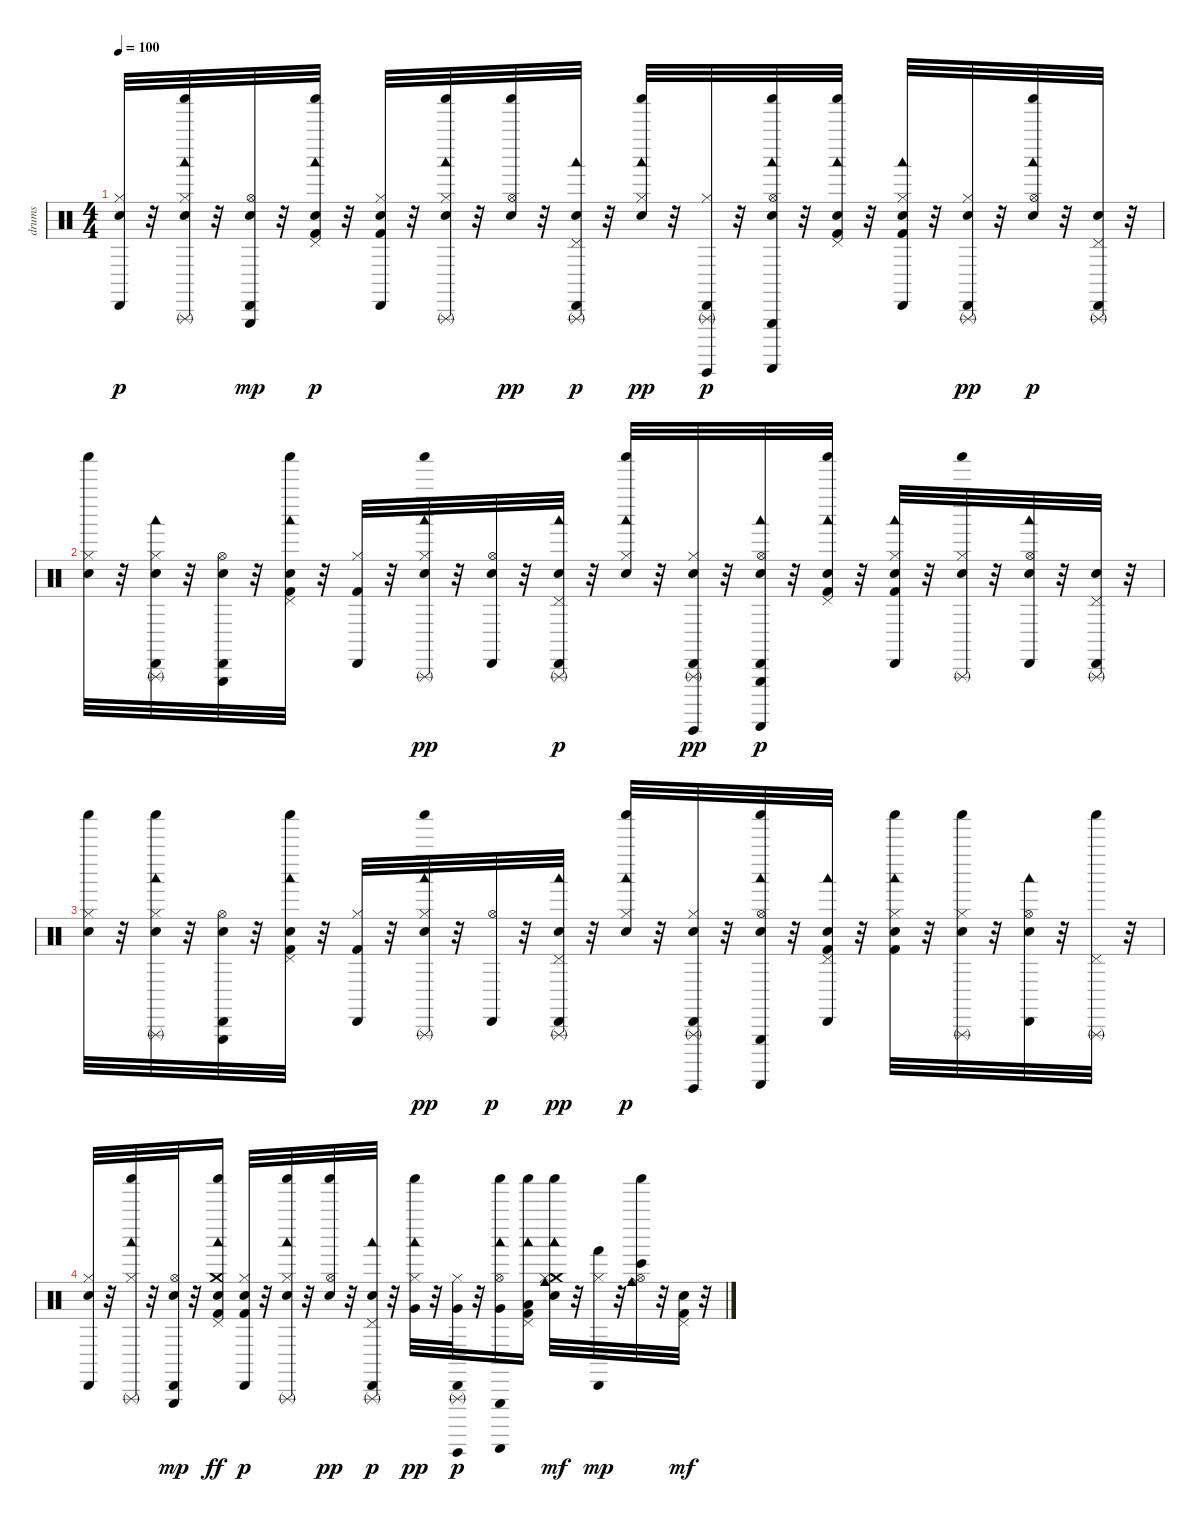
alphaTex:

\track ("drums" "drums") {instrument percussion}
\staff {score}
\articulation defaults
\ts (4 4)
\tempo 100
\clef neutral
\ks c
("Snare (hit) 2" "Hi-Hat (closed)" "Cabasa (hit)").32{dy p} r.32 ("Snare (hit) 2" "Hi-Hat (closed)" "Woodblock low (hit)" "Shaker (hit)" "Triangle (rnute)").32 r.32 ("Snare (hit) 2" "Hi-Hat (open)" "Cabasa (hit)" "Triangle (hit)").32{dy mp} r.32 ("Kick (hit) 2" "Snare (hit) 2" "Pedal Hi-Hat (hit)" "Woodblock low (hit)" "Shaker (hit)").32{dy p} r.32 ("Kick (hit) 2" "Snare (hit) 2" "Hi-Hat (closed)" "Cabasa (hit)").32 r.32 ("Snare (hit) 2" "Hi-Hat (closed)" "Woodblock low (hit)" "Shaker (hit)" "Triangle (rnute)").32 r.32 ("Snare (hit) 2" "Hi-Hat (open)" "Shaker (hit)").32{dy pp} r.32 ("Snare (hit) 2" "Pedal Hi-Hat (hit)" "Woodblock low (hit)" "Cabasa (hit)" "Triangle (rnute)").32{dy p} r.32 ("Snare (hit) 2" "Hi-Hat (closed)" "Woodblock low (hit)" "Shaker (hit)").32{dy pp} r.32 ("Hi-Hat (closed)" "Cabasa (hit)" "Triangle (rnute)" "Guiro (hit)").32{dy p} r.32 ("Snare (hit) 2" "Hi-Hat (open)" "Woodblock low (hit)" "Shaker (hit)" "Guiro (scrap-return)" "Triangle (hit)").32 r.32 ("Kick (hit) 2" "Snare (hit) 2" "Pedal Hi-Hat (hit)" "Woodblock low (hit)" "Shaker (hit)").32 r.32 ("Kick (hit) 2" "Snare (hit) 2" "Hi-Hat (closed)" "Woodblock low (hit)" "Cabasa (hit)").32 r.32 ("Snare (hit) 2" "Hi-Hat (closed)" "Cabasa (hit)" "Triangle (rnute)").32{dy pp} r.32 ("Snare (hit) 2" "Hi-Hat (open)" "Woodblock low (hit)" "Shaker (hit)").32{dy p} r.32 ("Snare (hit) 2" "Pedal Hi-Hat (hit)" "Cabasa (hit)" "Triangle (rnute)").32 r.32 |
("Snare (hit) 2" "Hi-Hat (closed)" "Shaker (hit)").32 r.32 ("Snare (hit) 2" "Hi-Hat (closed)" "Woodblock low (hit)" "Cabasa (hit)" "Triangle (rnute)").32 r.32 ("Snare (hit) 2" "Hi-Hat (open)" "Cabasa (hit)" "Triangle (hit)").32 r.32 ("Kick (hit) 2" "Snare (hit) 2" "Pedal Hi-Hat (hit)" "Woodblock low (hit)" "Shaker (hit)").32 r.32 ("Kick (hit) 2" "Hi-Hat (closed)" "Cabasa (hit)").32 r.32 ("Snare (hit) 2" "Hi-Hat (closed)" "Woodblock low (hit)" "Shaker (hit)" "Triangle (rnute)").32{dy pp} r.32 ("Snare (hit) 2" "Hi-Hat (open)" "Cabasa (hit)").32 r.32 ("Snare (hit) 2" "Pedal Hi-Hat (hit)" "Woodblock low (hit)" "Cabasa (hit)" "Triangle (rnute)").32{dy p} r.32 ("Snare (hit) 2" "Hi-Hat (closed)" "Woodblock low (hit)" "Shaker (hit)").32 r.32 ("Snare (hit) 2" "Hi-Hat (closed)" "Cabasa (hit)" "Guiro (hit)" "Triangle (rnute)").32{dy pp} r.32 ("Snare (hit) 2" "Hi-Hat (open)" "Woodblock low (hit)" "Cabasa (hit)" "Guiro (scrap-return)" "Triangle (hit)").32{dy p} r.32 ("Kick (hit) 2" "Snare (hit) 2" "Pedal Hi-Hat (hit)" "Woodblock low (hit)" "Shaker (hit)").32 r.32 ("Kick (hit) 2" "Snare (hit) 2" "Hi-Hat (closed)" "Woodblock low (hit)" "Cabasa (hit)").32 r.32 ("Snare (hit) 2" "Hi-Hat (closed)" "Shaker (hit)" "Triangle (rnute)").32 r.32 ("Snare (hit) 2" "Hi-Hat (open)" "Woodblock low (hit)" "Cabasa (hit)").32 r.32 ("Snare (hit) 2" "Pedal Hi-Hat (hit)" "Cabasa (hit)" "Triangle (rnute)").32 r.32 |
("Snare (hit) 2" "Hi-Hat (closed)" "Shaker (hit)").32 r.32 ("Snare (hit) 2" "Hi-Hat (closed)" "Woodblock low (hit)" "Shaker (hit)" "Triangle (rnute)").32 r.32 ("Snare (hit) 2" "Hi-Hat (open)" "Cabasa (hit)" "Triangle (hit)").32 r.32 ("Kick (hit) 2" "Snare (hit) 2" "Pedal Hi-Hat (hit)" "Woodblock low (hit)" "Shaker (hit)").32 r.32 ("Kick (hit) 2" "Hi-Hat (closed)" "Cabasa (hit)").32 r.32 ("Snare (hit) 2" "Hi-Hat (closed)" "Woodblock low (hit)" "Shaker (hit)" "Triangle (rnute)").32{dy pp} r.32 ("Hi-Hat (open)" "Cabasa (hit)").32{dy p} r.32 ("Snare (hit) 2" "Pedal Hi-Hat (hit)" "Woodblock low (hit)" "Cabasa (hit)" "Triangle (rnute)").32{dy pp} r.32 ("Snare (hit) 2" "Hi-Hat (closed)" "Woodblock low (hit)" "Shaker (hit)").32{dy p} r.32 ("Snare (hit) 2" "Hi-Hat (closed)" "Cabasa (hit)" "Triangle (rnute)" "Guiro (hit)").32 r.32 ("Snare (hit) 2" "Hi-Hat (open)" "Woodblock low (hit)" "Shaker (hit)" "Guiro (scrap-return)" "Triangle (hit)").32 r.32 ("Kick (hit) 2" "Snare (hit) 2" "Pedal Hi-Hat (hit)" "Woodblock low (hit)" "Cabasa (hit)").32 r.32 ("Kick (hit) 2" "Snare (hit) 2" "Hi-Hat (closed)" "Woodblock low (hit)" "Shaker (hit)").32 r.32 ("Snare (hit) 2" "Hi-Hat (closed)" "Shaker (hit)" "Triangle (rnute)").32 r.32 ("Snare (hit) 2" "Hi-Hat (open)" "Woodblock low (hit)" "Cabasa (hit)").32 r.32 ("Pedal Hi-Hat (hit)" "Shaker (hit)" "Triangle (rnute)").32 r.32 |
("Snare (hit) 2" "Hi-Hat (closed)" "Cabasa (hit)").32 r.32 ("Hi-Hat (closed)" "Woodblock low (hit)" "Shaker (hit)" "Triangle (rnute)").32 r.32 ("Snare (hit) 2" "Hi-Hat (open)" "Cabasa (hit)" "Triangle (hit)").32{dy mp} r.32 ("Kick (hit) 2" "Snare (hit) 2" "Pedal Hi-Hat (hit)" "Woodblock low (hit)" "Shaker (hit)" "Crash medium (hit)").16{dy ff} ("Kick (hit) 2" "Snare (hit) 2" "Hi-Hat (closed)" "Cabasa (hit)").32{dy p} r.32 ("Snare (hit) 2" "Hi-Hat (closed)" "Woodblock low (hit)" "Shaker (hit)" "Triangle (rnute)").32 r.32 ("Snare (hit) 2" "Hi-Hat (open)" "Shaker (hit)").32{dy pp} r.32 ("Snare (hit) 2" "Pedal Hi-Hat (hit)" "Woodblock low (hit)" "Cabasa (hit)" "Triangle (rnute)").32{dy p} r.32 ("Very Low Tom (hit)" "Hi-Hat (closed)" "Woodblock low (hit)" "Shaker (hit)").32{dy pp} r.32 ("Hi-Hat (closed)" "Very Low Tom (hit)" "Cabasa (hit)" "Triangle (rnute)" "Guiro (hit)").32{dy p} r.32 ("Very Low Tom (hit)" "Hi-Hat (open)" "Woodblock low (hit)" "Shaker (hit)" "Guiro (scrap-return)" "Triangle (hit)").16 ("Kick (hit) 2" "Low Floor Tom (hit)" "Pedal Hi-Hat (hit)" "Woodblock low (hit)" "Shaker (hit)").16 ("Crash medium (hit)" "Snare (hit) 2" "Hi-Hat (closed)" "Woodblock low (hit)" "Shaker (hit)" "Cowbell medium (hit)").32{dy mf} r.32 ("Hi-Hat (closed)" "Cabasa (hit)" "Hand (hit)").32{dy mp} r.32 ("Hi-Hat (open)" "Shaker (hit)" "Cowbell medium (hit)" "Ride (bell)" "Bongo High (hit)").32 r.32 ("Snare (hit) 2" "Pedal Hi-Hat (hit)" "Kick (hit) 2").32{dy mf} r.32
